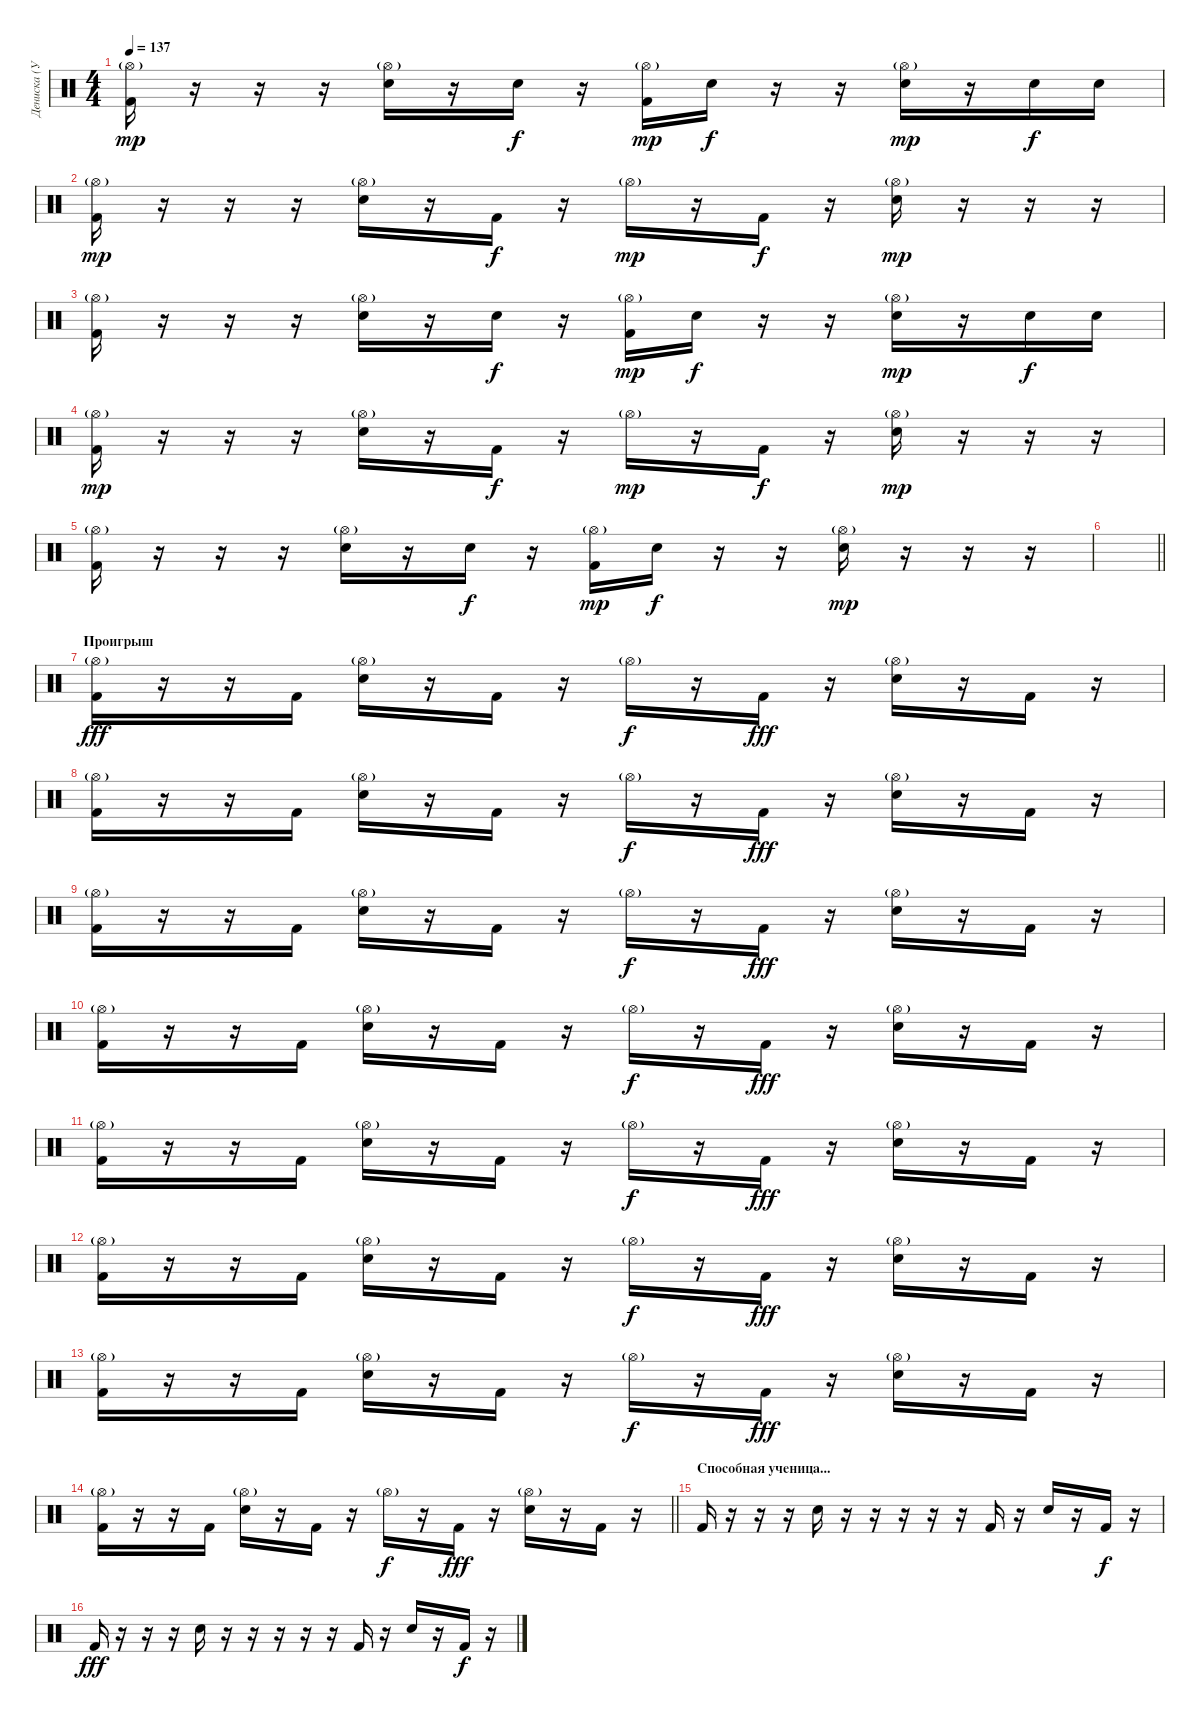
\track ("Дениска (Ударник)" "Дениска (У") {instrument percussion}
\staff
\articulation defaults
\ts (4 4)
\tempo 137
\clef neutral
\ks c
("Kick (hit) 2" "Hi-Hat (open)"{g}).16{dy mp} r.16 r.16 r.16 ("Snare (hit) 2" "Hi-Hat (open)"{g}).16 r.16 "Snare (hit) 2".16{dy f} r.16 ("Kick (hit) 2" "Hi-Hat (open)"{g}).16{dy mp} "Snare (hit) 2".16{dy f} r.16 r.16 ("Snare (hit) 2" "Hi-Hat (open)"{g}).16{dy mp} r.16 "Snare (hit) 2".16{dy f} "Snare (hit) 2".16 |
("Kick (hit) 2" "Hi-Hat (open)"{g}).16{dy mp} r.16 r.16 r.16 ("Snare (hit) 2" "Hi-Hat (open)"{g}).16 r.16 "Kick (hit) 2".16{dy f} r.16 "Hi-Hat (open)"{g}.16{dy mp} r.16 "Kick (hit) 2".16{dy f} r.16 ("Snare (hit) 2" "Hi-Hat (open)"{g}).16{dy mp} r.16 r.16 r.16 |
("Kick (hit) 2" "Hi-Hat (open)"{g}).16 r.16 r.16 r.16 ("Snare (hit) 2" "Hi-Hat (open)"{g}).16 r.16 "Snare (hit) 2".16{dy f} r.16 ("Kick (hit) 2" "Hi-Hat (open)"{g}).16{dy mp} "Snare (hit) 2".16{dy f} r.16 r.16 ("Snare (hit) 2" "Hi-Hat (open)"{g}).16{dy mp} r.16 "Snare (hit) 2".16{dy f} "Snare (hit) 2".16 |
("Kick (hit) 2" "Hi-Hat (open)"{g}).16{dy mp} r.16 r.16 r.16 ("Snare (hit) 2" "Hi-Hat (open)"{g}).16 r.16 "Kick (hit) 2".16{dy f} r.16 "Hi-Hat (open)"{g}.16{dy mp} r.16 "Kick (hit) 2".16{dy f} r.16 ("Snare (hit) 2" "Hi-Hat (open)"{g}).16{dy mp} r.16 r.16 r.16 |
("Kick (hit) 2" "Hi-Hat (open)"{g}).16 r.16 r.16 r.16 ("Snare (hit) 2" "Hi-Hat (open)"{g}).16 r.16 "Snare (hit) 2".16{dy f} r.16 ("Kick (hit) 2" "Hi-Hat (open)"{g}).16{dy mp} "Snare (hit) 2".16{dy f} r.16 r.16 ("Snare (hit) 2" "Hi-Hat (open)"{g}).16{dy mp} r.16 r.16 r.16 |
\barLineRight lightlight
|
\section ("" "Проигрыш")
("Kick (hit) 2" "Hi-Hat (open)"{g}).16{dy fff} r.16 r.16 "Kick (hit) 2".16 ("Snare (hit) 2" "Hi-Hat (open)"{g}).16 r.16 "Kick (hit) 2".16 r.16 "Hi-Hat (open)"{g}.16{dy f} r.16 "Kick (hit) 2".16{dy fff} r.16 ("Snare (hit) 2" "Hi-Hat (open)"{g}).16 r.16 "Kick (hit) 2".16 r.16 |
("Kick (hit) 2" "Hi-Hat (open)"{g}).16 r.16 r.16 "Kick (hit) 2".16 ("Snare (hit) 2" "Hi-Hat (open)"{g}).16 r.16 "Kick (hit) 2".16 r.16 "Hi-Hat (open)"{g}.16{dy f} r.16 "Kick (hit) 2".16{dy fff} r.16 ("Snare (hit) 2" "Hi-Hat (open)"{g}).16 r.16 "Kick (hit) 2".16 r.16 |
("Kick (hit) 2" "Hi-Hat (open)"{g}).16 r.16 r.16 "Kick (hit) 2".16 ("Snare (hit) 2" "Hi-Hat (open)"{g}).16 r.16 "Kick (hit) 2".16 r.16 "Hi-Hat (open)"{g}.16{dy f} r.16 "Kick (hit) 2".16{dy fff} r.16 ("Snare (hit) 2" "Hi-Hat (open)"{g}).16 r.16 "Kick (hit) 2".16 r.16 |
("Kick (hit) 2" "Hi-Hat (open)"{g}).16 r.16 r.16 "Kick (hit) 2".16 ("Snare (hit) 2" "Hi-Hat (open)"{g}).16 r.16 "Kick (hit) 2".16 r.16 "Hi-Hat (open)"{g}.16{dy f} r.16 "Kick (hit) 2".16{dy fff} r.16 ("Snare (hit) 2" "Hi-Hat (open)"{g}).16 r.16 "Kick (hit) 2".16 r.16 |
("Kick (hit) 2" "Hi-Hat (open)"{g}).16 r.16 r.16 "Kick (hit) 2".16 ("Snare (hit) 2" "Hi-Hat (open)"{g}).16 r.16 "Kick (hit) 2".16 r.16 "Hi-Hat (open)"{g}.16{dy f} r.16 "Kick (hit) 2".16{dy fff} r.16 ("Snare (hit) 2" "Hi-Hat (open)"{g}).16 r.16 "Kick (hit) 2".16 r.16 |
("Kick (hit) 2" "Hi-Hat (open)"{g}).16 r.16 r.16 "Kick (hit) 2".16 ("Snare (hit) 2" "Hi-Hat (open)"{g}).16 r.16 "Kick (hit) 2".16 r.16 "Hi-Hat (open)"{g}.16{dy f} r.16 "Kick (hit) 2".16{dy fff} r.16 ("Snare (hit) 2" "Hi-Hat (open)"{g}).16 r.16 "Kick (hit) 2".16 r.16 |
("Kick (hit) 2" "Hi-Hat (open)"{g}).16 r.16 r.16 "Kick (hit) 2".16 ("Snare (hit) 2" "Hi-Hat (open)"{g}).16 r.16 "Kick (hit) 2".16 r.16 "Hi-Hat (open)"{g}.16{dy f} r.16 "Kick (hit) 2".16{dy fff} r.16 ("Snare (hit) 2" "Hi-Hat (open)"{g}).16 r.16 "Kick (hit) 2".16 r.16 |
\barLineRight lightlight
("Kick (hit) 2" "Hi-Hat (open)"{g}).16 r.16 r.16 "Kick (hit) 2".16 ("Snare (hit) 2" "Hi-Hat (open)"{g}).16 r.16 "Kick (hit) 2".16 r.16 "Hi-Hat (open)"{g}.16{dy f} r.16 "Kick (hit) 2".16{dy fff} r.16 ("Snare (hit) 2" "Hi-Hat (open)"{g}).16 r.16 "Kick (hit) 2".16 r.16 |
\section ("" "Способная ученица...")
"Kick (hit) 2".16 r.16 r.16 r.16 "Snare (hit) 2".16 r.16 r.16 r.16 r.16 r.16 "Kick (hit) 2".16 r.16 "Snare (hit) 2".16 r.16 "Kick (hit) 2".16{dy f} r.16 |
"Kick (hit) 2".16{dy fff} r.16 r.16 r.16 "Snare (hit) 2".16 r.16 r.16 r.16 r.16 r.16 "Kick (hit) 2".16 r.16 "Snare (hit) 2".16 r.16 "Kick (hit) 2".16{dy f} r.16
